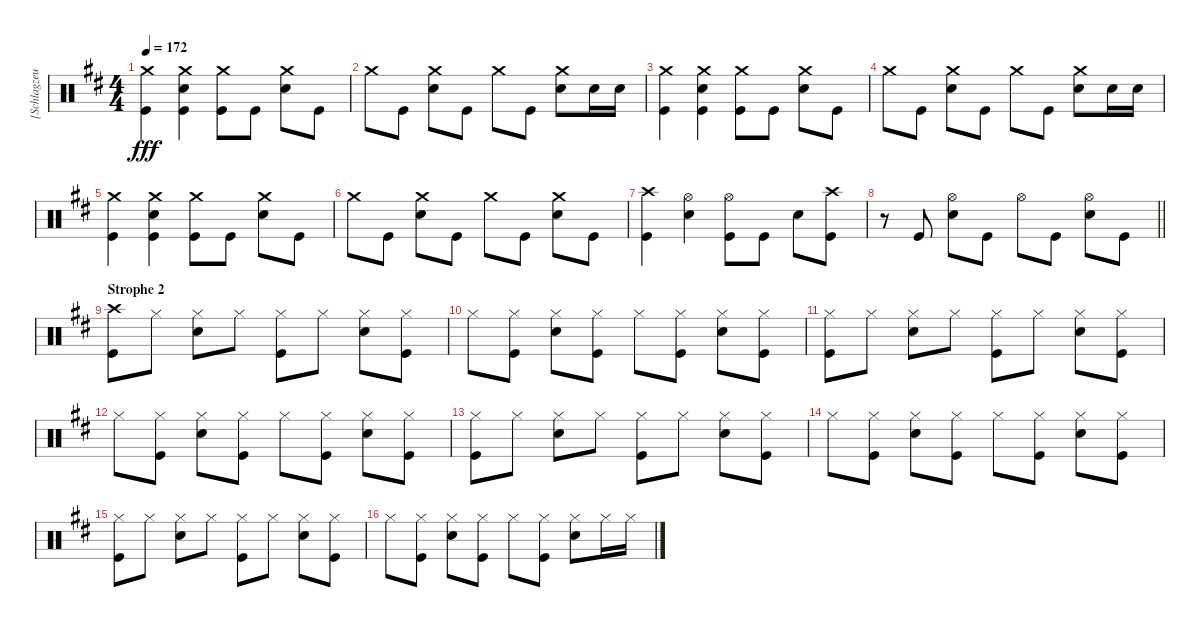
\track ("[Schlagzeug]" "[Schlagzeu") {instrument percussion}
\staff {score}
\articulation defaults
\ts (4 4)
\tempo 172
\clef neutral
\ks d
("Crash medium (hit)" "Kick (hit)").4{dy fff} ("Crash medium (hit)" "Electric Snare (hit)" "Kick (hit)").4 ("Crash medium (hit)" "Kick (hit)").8 "Kick (hit)".8 ("Crash medium (hit)" "Electric Snare (hit)").8 "Kick (hit)".8 |
"Crash medium (hit)".8 "Kick (hit)".8 ("Crash medium (hit)" "Electric Snare (hit)").8 "Kick (hit)".8 "Crash medium (hit)".8 "Kick (hit)".8 ("Crash medium (hit)" "Electric Snare (hit)").8 "Electric Snare (hit)".16 "Electric Snare (hit)".16 |
("Crash medium (hit)" "Kick (hit)").4 ("Crash medium (hit)" "Electric Snare (hit)" "Kick (hit)").4 ("Crash medium (hit)" "Kick (hit)").8 "Kick (hit)".8 ("Crash medium (hit)" "Electric Snare (hit)").8 "Kick (hit)".8 |
"Crash medium (hit)".8 "Kick (hit)".8 ("Crash medium (hit)" "Electric Snare (hit)").8 "Kick (hit)".8 "Crash medium (hit)".8 "Kick (hit)".8 ("Crash medium (hit)" "Electric Snare (hit)").8 "Electric Snare (hit)".16 "Electric Snare (hit)".16 |
("Crash medium (hit)" "Kick (hit)").4 ("Crash medium (hit)" "Electric Snare (hit)" "Kick (hit)").4 ("Crash medium (hit)" "Kick (hit)").8 "Kick (hit)".8 ("Crash medium (hit)" "Electric Snare (hit)").8 "Kick (hit)".8 |
"Crash medium (hit)".8 "Kick (hit)".8 ("Crash medium (hit)" "Electric Snare (hit)").8 "Kick (hit)".8 "Crash medium (hit)".8 "Kick (hit)".8 ("Crash medium (hit)" "Electric Snare (hit)").8 "Kick (hit)".8 |
("Crash high (hit)" "Kick (hit)").4 ("Hi-Hat (open)" "Electric Snare (hit)").4 ("Hi-Hat (open)" "Kick (hit)").8 "Kick (hit)".8 "Electric Snare (hit)".8 ("Crash high (hit)" "Kick (hit)").8 |
\barLineRight lightlight
r.8 "Kick (hit)".8 ("Hi-Hat (open)" "Electric Snare (hit)").8 "Kick (hit)".8 "Hi-Hat (open)".8 "Kick (hit)".8 ("Hi-Hat (open)" "Electric Snare (hit)").8 "Kick (hit)".8 |
\section ("" "Strophe 2")
("Crash high (hit)" "Kick (hit)").8 "Hi-Hat (closed)".8 ("Hi-Hat (closed)" "Electric Snare (hit)").8 "Hi-Hat (closed)".8 ("Hi-Hat (closed)" "Kick (hit)").8 "Hi-Hat (closed)".8 ("Hi-Hat (closed)" "Electric Snare (hit)").8 ("Hi-Hat (closed)" "Kick (hit)").8 |
"Hi-Hat (closed)".8 ("Hi-Hat (closed)" "Kick (hit)").8 ("Hi-Hat (closed)" "Electric Snare (hit)").8 ("Hi-Hat (closed)" "Kick (hit)").8 "Hi-Hat (closed)".8 ("Hi-Hat (closed)" "Kick (hit)").8 ("Hi-Hat (closed)" "Electric Snare (hit)").8 ("Hi-Hat (closed)" "Kick (hit)").8 |
("Hi-Hat (closed)" "Kick (hit)").8 "Hi-Hat (closed)".8 ("Hi-Hat (closed)" "Electric Snare (hit)").8 "Hi-Hat (closed)".8 ("Hi-Hat (closed)" "Kick (hit)").8 "Hi-Hat (closed)".8 ("Hi-Hat (closed)" "Electric Snare (hit)").8 ("Hi-Hat (closed)" "Kick (hit)").8 |
"Hi-Hat (closed)".8 ("Hi-Hat (closed)" "Kick (hit)").8 ("Hi-Hat (closed)" "Electric Snare (hit)").8 ("Hi-Hat (closed)" "Kick (hit)").8 "Hi-Hat (closed)".8 ("Hi-Hat (closed)" "Kick (hit)").8 ("Hi-Hat (closed)" "Electric Snare (hit)").8 ("Hi-Hat (closed)" "Kick (hit)").8 |
("Hi-Hat (closed)" "Kick (hit)").8 "Hi-Hat (closed)".8 ("Hi-Hat (closed)" "Electric Snare (hit)").8 "Hi-Hat (closed)".8 ("Hi-Hat (closed)" "Kick (hit)").8 "Hi-Hat (closed)".8 ("Hi-Hat (closed)" "Electric Snare (hit)").8 ("Hi-Hat (closed)" "Kick (hit)").8 |
"Hi-Hat (closed)".8 ("Hi-Hat (closed)" "Kick (hit)").8 ("Hi-Hat (closed)" "Electric Snare (hit)").8 ("Hi-Hat (closed)" "Kick (hit)").8 "Hi-Hat (closed)".8 ("Hi-Hat (closed)" "Kick (hit)").8 ("Hi-Hat (closed)" "Electric Snare (hit)").8 ("Hi-Hat (closed)" "Kick (hit)").8 |
("Hi-Hat (closed)" "Kick (hit)").8 "Hi-Hat (closed)".8 ("Hi-Hat (closed)" "Electric Snare (hit)").8 "Hi-Hat (closed)".8 ("Hi-Hat (closed)" "Kick (hit)").8 "Hi-Hat (closed)".8 ("Hi-Hat (closed)" "Electric Snare (hit)").8 ("Hi-Hat (closed)" "Kick (hit)").8 |
"Hi-Hat (closed)".8 ("Hi-Hat (closed)" "Kick (hit)").8 ("Hi-Hat (closed)" "Electric Snare (hit)").8 ("Hi-Hat (closed)" "Kick (hit)").8 "Hi-Hat (closed)".8 ("Hi-Hat (closed)" "Kick (hit)").8 ("Hi-Hat (closed)" "Electric Snare (hit)").8 "Hi-Hat (closed)".16 "Hi-Hat (closed)".16
